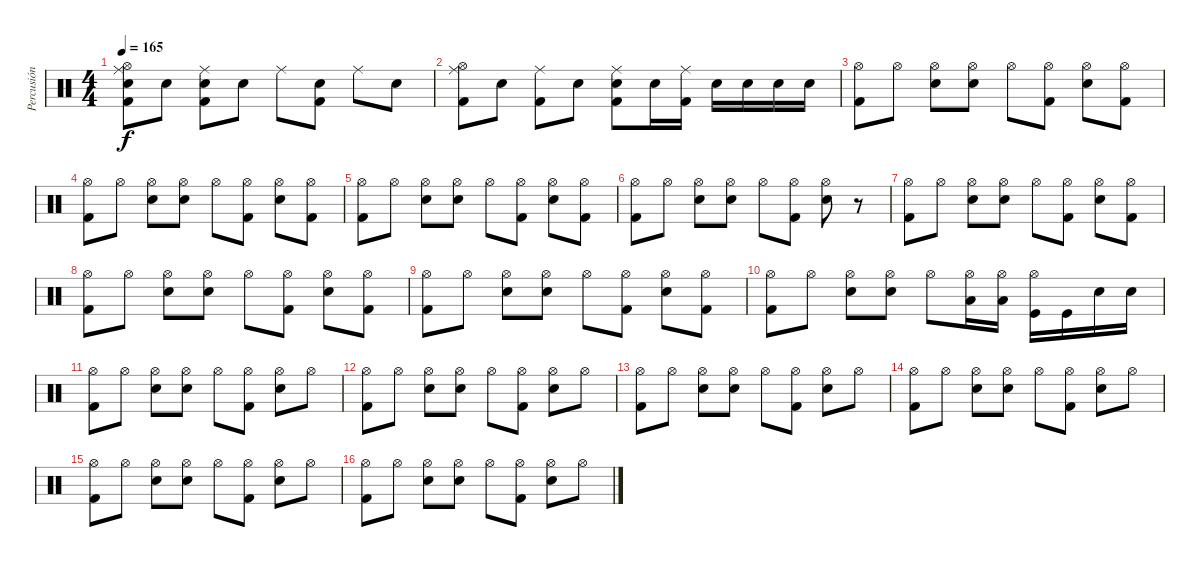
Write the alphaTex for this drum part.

\track ("Percusión" "Percusión") {instrument percussion}
\staff {score}
\articulation defaults
\ts (4 4)
\tempo 165
\clef neutral
\ks c
("Snare (hit) 2" "Kick (hit) 2" "Ride (middle)" "Hi-Hat (open)").8{dy f} "Snare (hit) 2".8 ("Snare (hit) 2" "Kick (hit) 2" "Ride (middle)").8 "Snare (hit) 2".8 "Ride (middle)".8 ("Snare (hit) 2" "Kick (hit) 2").8 "Ride (middle)".8 "Snare (hit) 2".8 |
("Kick (hit) 2" "Ride (middle)" "Hi-Hat (open)").8 "Snare (hit) 2".8 ("Kick (hit) 2" "Ride (middle)").8 "Snare (hit) 2".8 ("Snare (hit) 2" "Kick (hit) 2" "Ride (middle)").8 "Snare (hit) 2".16 ("Kick (hit) 2" "Ride (middle)").16 "Snare (hit) 2".16 "Snare (hit) 2".16 "Snare (hit) 2".16 "Snare (hit) 2".16 |
("Kick (hit) 2" "Hi-Hat (open)").8 "Hi-Hat (open)".8 ("Snare (hit) 2" "Hi-Hat (open)").8 ("Snare (hit) 2" "Hi-Hat (open)").8 "Hi-Hat (open)".8 ("Kick (hit) 2" "Hi-Hat (open)").8 ("Snare (hit) 2" "Hi-Hat (open)").8 ("Kick (hit) 2" "Hi-Hat (open)").8 |
("Kick (hit) 2" "Hi-Hat (open)").8 "Hi-Hat (open)".8 ("Snare (hit) 2" "Hi-Hat (open)").8 ("Snare (hit) 2" "Hi-Hat (open)").8 "Hi-Hat (open)".8 ("Kick (hit) 2" "Hi-Hat (open)").8 ("Snare (hit) 2" "Hi-Hat (open)").8 ("Kick (hit) 2" "Hi-Hat (open)").8 |
("Kick (hit) 2" "Hi-Hat (open)").8 "Hi-Hat (open)".8 ("Snare (hit) 2" "Hi-Hat (open)").8 ("Snare (hit) 2" "Hi-Hat (open)").8 "Hi-Hat (open)".8 ("Kick (hit) 2" "Hi-Hat (open)").8 ("Snare (hit) 2" "Hi-Hat (open)").8 ("Kick (hit) 2" "Hi-Hat (open)").8 |
("Kick (hit) 2" "Hi-Hat (open)").8 "Hi-Hat (open)".8 ("Snare (hit) 2" "Hi-Hat (open)").8 ("Snare (hit) 2" "Hi-Hat (open)").8 "Hi-Hat (open)".8 ("Kick (hit) 2" "Hi-Hat (open)").8 ("Snare (hit) 2" "Hi-Hat (open)").8 r.8 |
("Kick (hit) 2" "Hi-Hat (open)").8 "Hi-Hat (open)".8 ("Snare (hit) 2" "Hi-Hat (open)").8 ("Snare (hit) 2" "Hi-Hat (open)").8 "Hi-Hat (open)".8 ("Kick (hit) 2" "Hi-Hat (open)").8 ("Snare (hit) 2" "Hi-Hat (open)").8 ("Kick (hit) 2" "Hi-Hat (open)").8 |
("Kick (hit) 2" "Hi-Hat (open)").8 "Hi-Hat (open)".8 ("Snare (hit) 2" "Hi-Hat (open)").8 ("Snare (hit) 2" "Hi-Hat (open)").8 "Hi-Hat (open)".8 ("Kick (hit) 2" "Hi-Hat (open)").8 ("Snare (hit) 2" "Hi-Hat (open)").8 ("Kick (hit) 2" "Hi-Hat (open)").8 |
("Kick (hit) 2" "Hi-Hat (open)").8 "Hi-Hat (open)".8 ("Snare (hit) 2" "Hi-Hat (open)").8 ("Snare (hit) 2" "Hi-Hat (open)").8 "Hi-Hat (open)".8 ("Kick (hit) 2" "Hi-Hat (open)").8 ("Snare (hit) 2" "Hi-Hat (open)").8 ("Kick (hit) 2" "Hi-Hat (open)").8 |
("Kick (hit) 2" "Hi-Hat (open)").8 "Hi-Hat (open)".8 ("Snare (hit) 2" "Hi-Hat (open)").8 ("Snare (hit) 2" "Hi-Hat (open)").8 "Hi-Hat (open)".8 ("Low Tom (hit)" "Hi-Hat (open)").16 ("Low Tom (hit)" "Hi-Hat (open)").16 ("Kick (hit)" "Hi-Hat (open)").16 "Kick (hit)".16 "Snare (hit) 2".16 "Snare (hit) 2".16 |
("Kick (hit) 2" "Hi-Hat (open)").8 "Hi-Hat (open)".8 ("Snare (hit) 2" "Hi-Hat (open)").8 ("Snare (hit) 2" "Hi-Hat (open)").8 "Hi-Hat (open)".8 ("Kick (hit) 2" "Hi-Hat (open)").8 ("Snare (hit) 2" "Hi-Hat (open)").8 "Hi-Hat (open)".8 |
("Kick (hit) 2" "Hi-Hat (open)").8 "Hi-Hat (open)".8 ("Snare (hit) 2" "Hi-Hat (open)").8 ("Snare (hit) 2" "Hi-Hat (open)").8 "Hi-Hat (open)".8 ("Kick (hit) 2" "Hi-Hat (open)").8 ("Snare (hit) 2" "Hi-Hat (open)").8 "Hi-Hat (open)".8 |
("Kick (hit) 2" "Hi-Hat (open)").8 "Hi-Hat (open)".8 ("Snare (hit) 2" "Hi-Hat (open)").8 ("Snare (hit) 2" "Hi-Hat (open)").8 "Hi-Hat (open)".8 ("Kick (hit) 2" "Hi-Hat (open)").8 ("Snare (hit) 2" "Hi-Hat (open)").8 "Hi-Hat (open)".8 |
("Kick (hit) 2" "Hi-Hat (open)").8 "Hi-Hat (open)".8 ("Snare (hit) 2" "Hi-Hat (open)").8 ("Snare (hit) 2" "Hi-Hat (open)").8 "Hi-Hat (open)".8 ("Kick (hit) 2" "Hi-Hat (open)").8 ("Snare (hit) 2" "Hi-Hat (open)").8 "Hi-Hat (open)".8 |
("Kick (hit) 2" "Hi-Hat (open)").8 "Hi-Hat (open)".8 ("Snare (hit) 2" "Hi-Hat (open)").8 ("Snare (hit) 2" "Hi-Hat (open)").8 "Hi-Hat (open)".8 ("Kick (hit) 2" "Hi-Hat (open)").8 ("Snare (hit) 2" "Hi-Hat (open)").8 "Hi-Hat (open)".8 |
("Kick (hit) 2" "Hi-Hat (open)").8 "Hi-Hat (open)".8 ("Snare (hit) 2" "Hi-Hat (open)").8 ("Snare (hit) 2" "Hi-Hat (open)").8 "Hi-Hat (open)".8 ("Kick (hit) 2" "Hi-Hat (open)").8 ("Snare (hit) 2" "Hi-Hat (open)").8 "Hi-Hat (open)".8
